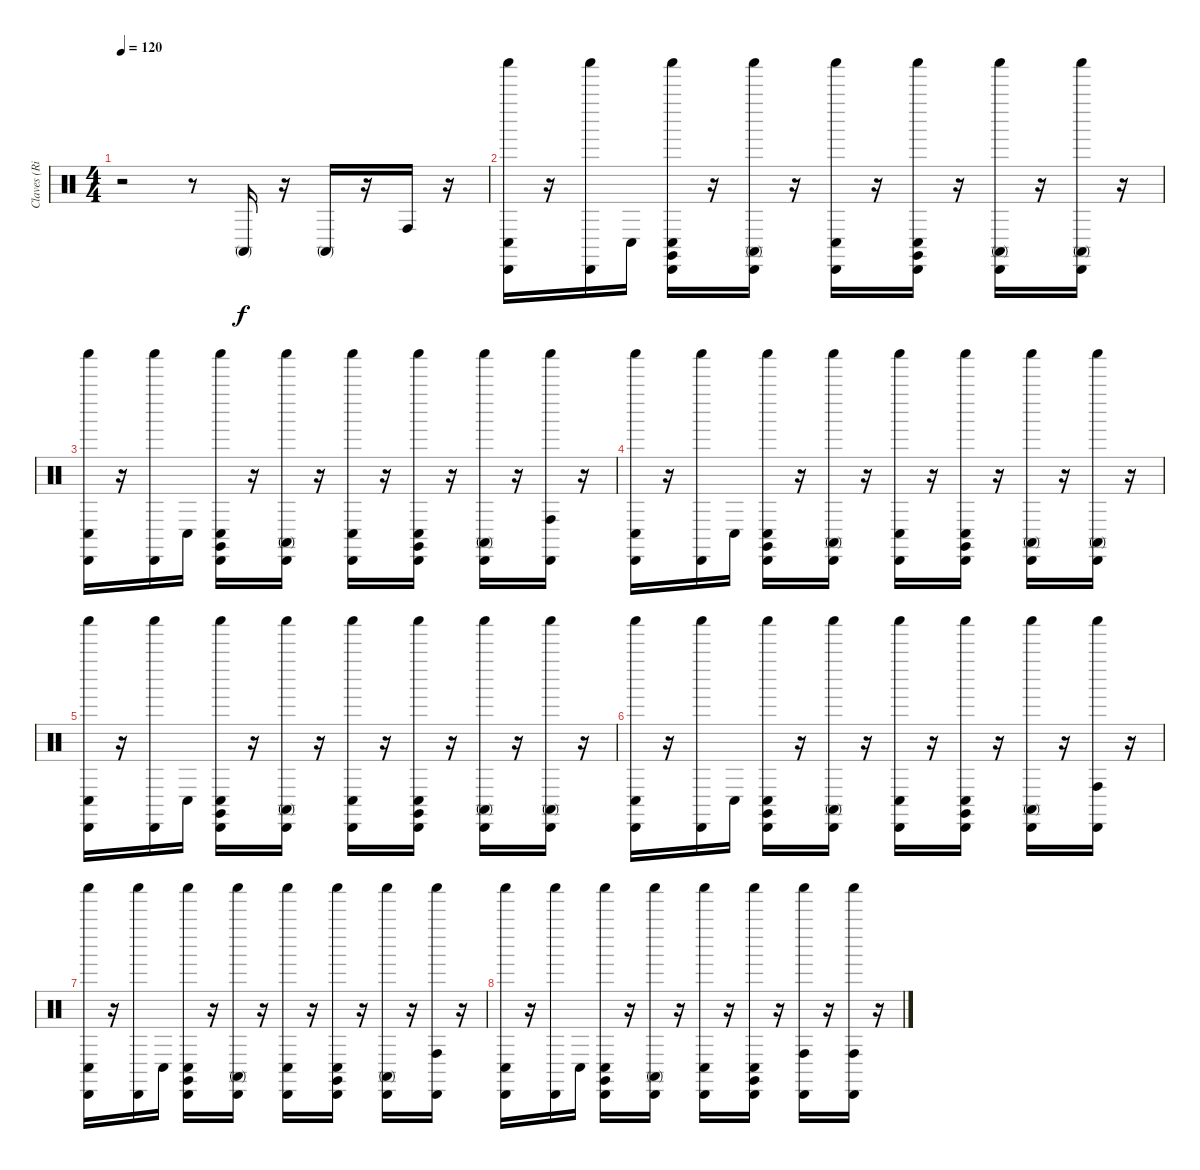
\track ("Claves (Ringo)" "Claves (Ri") {instrument percussion}
\staff {score}
\articulation defaults
\ts (4 4)
\tempo 120
\clef neutral
\ks c
r.2{dy f} r.8 "Conga high (mute)".16 r.16 "Conga high (mute)".16 r.16 "Conga high (hit)".16 r.16 |
("Conga low (hit)" "Cabasa (hit)" "Shaker (hit)").16 r.16 ("Cabasa (hit)" "Shaker (hit)").16 "Conga low (hit)".16 ("Claves (hit)" "Cabasa (hit)" "Conga low (hit)" "Shaker (hit)").16 r.16 ("Shaker (hit)" "Cabasa (hit)" "Conga high (mute)").16 r.16 ("Conga low (hit)" "Shaker (hit)" "Cabasa (hit)").16 r.16 ("Cabasa (hit)" "Conga low (hit)" "Claves (hit)" "Shaker (hit)").16 r.16 ("Shaker (hit)" "Conga high (mute)" "Cabasa (hit)").16 r.16 ("Shaker (hit)" "Conga high (mute)" "Cabasa (hit)").16 r.16 |
("Conga low (hit)" "Cabasa (hit)" "Shaker (hit)").16 r.16 ("Cabasa (hit)" "Shaker (hit)").16 "Conga low (hit)".16 ("Claves (hit)" "Shaker (hit)" "Conga low (hit)" "Cabasa (hit)").16 r.16 ("Cabasa (hit)" "Shaker (hit)" "Conga high (mute)").16 r.16 ("Conga low (hit)" "Cabasa (hit)" "Shaker (hit)").16 r.16 ("Shaker (hit)" "Cabasa (hit)" "Conga low (hit)" "Claves (hit)").16 r.16 ("Cabasa (hit)" "Conga high (mute)" "Shaker (hit)").16 r.16 ("Cabasa (hit)" "Conga high (hit)" "Shaker (hit)").16 r.16 |
("Shaker (hit)" "Cabasa (hit)" "Conga low (hit)").16 r.16 ("Shaker (hit)" "Cabasa (hit)").16 "Conga low (hit)".16 ("Cabasa (hit)" "Conga low (hit)" "Claves (hit)" "Shaker (hit)").16 r.16 ("Shaker (hit)" "Conga high (mute)" "Cabasa (hit)").16 r.16 ("Shaker (hit)" "Cabasa (hit)" "Conga low (hit)").16 r.16 ("Claves (hit)" "Conga low (hit)" "Cabasa (hit)" "Shaker (hit)").16 r.16 ("Shaker (hit)" "Cabasa (hit)" "Conga high (mute)").16 r.16 ("Cabasa (hit)" "Shaker (hit)" "Conga high (mute)").16 r.16 |
("Conga low (hit)" "Cabasa (hit)" "Shaker (hit)").16 r.16 ("Cabasa (hit)" "Shaker (hit)").16 "Conga low (hit)".16 ("Shaker (hit)" "Cabasa (hit)" "Claves (hit)" "Conga low (hit)").16 r.16 ("Shaker (hit)" "Cabasa (hit)" "Conga high (mute)").16 r.16 ("Conga low (hit)" "Cabasa (hit)" "Shaker (hit)").16 r.16 ("Conga low (hit)" "Cabasa (hit)" "Claves (hit)" "Shaker (hit)").16 r.16 ("Shaker (hit)" "Cabasa (hit)" "Conga high (mute)").16 r.16 ("Cabasa (hit)" "Shaker (hit)" "Conga high (mute)").16 r.16 |
("Conga low (hit)" "Cabasa (hit)" "Shaker (hit)").16 r.16 ("Shaker (hit)" "Cabasa (hit)").16 "Conga low (hit)".16 ("Shaker (hit)" "Cabasa (hit)" "Claves (hit)" "Conga low (hit)").16 r.16 ("Conga high (mute)" "Cabasa (hit)" "Shaker (hit)").16 r.16 ("Conga low (hit)" "Shaker (hit)" "Cabasa (hit)").16 r.16 ("Conga low (hit)" "Cabasa (hit)" "Shaker (hit)" "Claves (hit)").16 r.16 ("Shaker (hit)" "Cabasa (hit)" "Conga high (mute)").16 r.16 ("Shaker (hit)" "Cabasa (hit)" "Conga high (hit)").16 r.16 |
("Cabasa (hit)" "Shaker (hit)" "Conga low (hit)").16 r.16 ("Shaker (hit)" "Cabasa (hit)").16 "Conga low (hit)".16 ("Conga low (hit)" "Cabasa (hit)" "Claves (hit)" "Shaker (hit)").16 r.16 ("Cabasa (hit)" "Conga high (mute)" "Shaker (hit)").16 r.16 ("Shaker (hit)" "Conga low (hit)" "Cabasa (hit)").16 r.16 ("Shaker (hit)" "Claves (hit)" "Conga low (hit)" "Cabasa (hit)").16 r.16 ("Conga high (mute)" "Cabasa (hit)" "Shaker (hit)").16 r.16 ("Shaker (hit)" "Cabasa (hit)" "Conga high (hit)").16 r.16 |
("Shaker (hit)" "Conga low (hit)" "Cabasa (hit)").16 r.16 ("Cabasa (hit)" "Shaker (hit)").16 "Conga low (hit)".16 ("Cabasa (hit)" "Shaker (hit)" "Conga low (hit)" "Claves (hit)").16 r.16 ("Conga high (mute)" "Shaker (hit)" "Cabasa (hit)").16 r.16 ("Conga low (hit)" "Cabasa (hit)" "Shaker (hit)").16 r.16 ("Cabasa (hit)" "Shaker (hit)" "Conga low (hit)" "Claves (hit)").16 r.16 ("Conga high (hit)" "Shaker (hit)" "Cabasa (hit)").16 r.16 ("Shaker (hit)" "Conga high (hit)" "Cabasa (hit)").16 r.16
